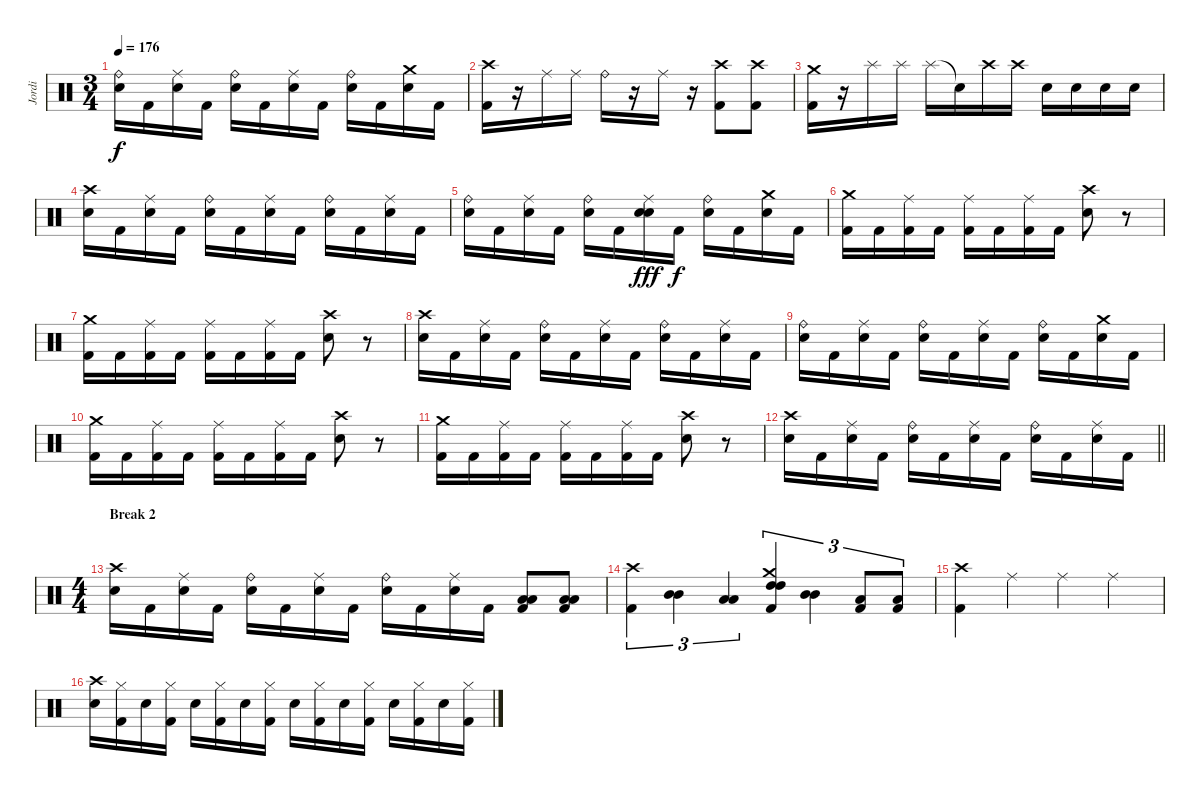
\track ("Jordi" "Jordi") {instrument percussion}
\staff {score}
\articulation defaults
\ts (3 4)
\tempo 176
\clef neutral
\ks c
("Ride (bell)" "Snare (hit) 2").16{dy f} "Kick (hit) 2".16 ("Ride (middle)" "Snare (hit) 2").16 "Kick (hit) 2".16 ("Ride (bell)" "Snare (hit) 2").16 "Kick (hit) 2".16 ("Ride (middle)" "Snare (hit) 2").16 "Kick (hit) 2".16 ("Ride (bell)" "Snare (hit) 2").16 "Kick (hit) 2".16 ("Crash medium (hit)" "Snare (hit) 2").16 "Kick (hit) 2".16 |
("Crash high (hit)" "Kick (hit) 2").16 r.16 "Ride (middle)".16 "Ride (middle)".16 "Ride (bell)".16 r.16 "Ride (middle)".16 r.16 ("Crash high (hit)" "Kick (hit) 2").8 ("Crash high (hit)" "Kick (hit) 2").8 |
("Crash medium (hit)" "Kick (hit) 2").16 r.16 "Splash (hit)".16 "Splash (hit)".16 "Splash (hit)".16 "Snare (hit)"{t}.16 "Crash high (hit)".16 "Crash high (hit)".16 "Snare (hit) 2".16 "Snare (hit) 2".16 "Snare (hit) 2".16 "Snare (hit) 2".16 |
("Crash high (hit)" "Snare (hit) 2").16 "Kick (hit) 2".16 ("Ride (middle)" "Snare (hit) 2").16 "Kick (hit) 2".16 ("Ride (bell)" "Snare (hit) 2").16 "Kick (hit) 2".16 ("Ride (middle)" "Snare (hit) 2").16 "Kick (hit) 2".16 ("Ride (bell)" "Snare (hit) 2").16 "Kick (hit) 2".16 ("Ride (middle)" "Snare (hit) 2").16 "Kick (hit) 2".16 |
("Ride (bell)" "Snare (hit) 2").16 "Kick (hit) 2".16 ("Ride (middle)" "Snare (hit) 2").16 "Kick (hit) 2".16 ("Ride (bell)" "Snare (hit) 2").16 "Kick (hit) 2".16 ("Ride (middle)" "Snare (hit) 2" "Snare (hit)").16{dy fff} "Kick (hit) 2".16{dy f} ("Ride (bell)" "Snare (hit) 2").16 "Kick (hit) 2".16 ("Crash medium (hit)" "Snare (hit) 2").16 "Kick (hit) 2".16 |
("Crash medium (hit)" "Kick (hit) 2").16 "Kick (hit) 2".16 ("Ride (middle)" "Kick (hit) 2").16 "Kick (hit) 2".16 ("Ride (middle)" "Kick (hit) 2").16 "Kick (hit) 2".16 ("Ride (middle)" "Kick (hit) 2").16 "Kick (hit) 2".16 ("Crash high (hit)" "Snare (hit) 2").8 r.8 |
("Crash medium (hit)" "Kick (hit) 2").16 "Kick (hit) 2".16 ("Ride (middle)" "Kick (hit) 2").16 "Kick (hit) 2".16 ("Ride (middle)" "Kick (hit) 2").16 "Kick (hit) 2".16 ("Ride (middle)" "Kick (hit) 2").16 "Kick (hit) 2".16 ("Crash high (hit)" "Snare (hit) 2").8 r.8 |
("Crash high (hit)" "Snare (hit) 2").16 "Kick (hit) 2".16 ("Ride (middle)" "Snare (hit) 2").16 "Kick (hit) 2".16 ("Ride (bell)" "Snare (hit) 2").16 "Kick (hit) 2".16 ("Ride (middle)" "Snare (hit) 2").16 "Kick (hit) 2".16 ("Ride (bell)" "Snare (hit) 2").16 "Kick (hit) 2".16 ("Ride (middle)" "Snare (hit) 2").16 "Kick (hit) 2".16 |
("Ride (bell)" "Snare (hit) 2").16 "Kick (hit) 2".16 ("Ride (middle)" "Snare (hit) 2").16 "Kick (hit) 2".16 ("Ride (bell)" "Snare (hit) 2").16 "Kick (hit) 2".16 ("Ride (middle)" "Snare (hit) 2").16 "Kick (hit) 2".16 ("Ride (bell)" "Snare (hit) 2").16 "Kick (hit) 2".16 ("Crash medium (hit)" "Snare (hit) 2").16 "Kick (hit) 2".16 |
("Crash medium (hit)" "Kick (hit) 2").16 "Kick (hit) 2".16 ("Ride (middle)" "Kick (hit) 2").16 "Kick (hit) 2".16 ("Ride (middle)" "Kick (hit) 2").16 "Kick (hit) 2".16 ("Ride (middle)" "Kick (hit) 2").16 "Kick (hit) 2".16 ("Crash high (hit)" "Snare (hit) 2").8 r.8 |
("Crash medium (hit)" "Kick (hit) 2").16 "Kick (hit) 2".16 ("Ride (middle)" "Kick (hit) 2").16 "Kick (hit) 2".16 ("Ride (middle)" "Kick (hit) 2").16 "Kick (hit) 2".16 ("Ride (middle)" "Kick (hit) 2").16 "Kick (hit) 2".16 ("Crash high (hit)" "Snare (hit) 2").8 r.8 |
\barLineRight lightlight
("Crash high (hit)" "Snare (hit) 2").16 "Kick (hit) 2".16 ("Ride (middle)" "Snare (hit) 2").16 "Kick (hit) 2".16 ("Ride (bell)" "Snare (hit) 2").16 "Kick (hit) 2".16 ("Ride (middle)" "Snare (hit) 2").16 "Kick (hit) 2".16 ("Ride (bell)" "Snare (hit) 2").16 "Kick (hit) 2".16 ("Ride (middle)" "Snare (hit) 2").16 "Kick (hit) 2".16 |
\ts (4 4)
\section ("" "Break 2")
("Crash high (hit)" "Snare (hit) 2").16 "Kick (hit) 2".16 ("Ride (middle)" "Snare (hit) 2").16 "Kick (hit) 2".16 ("Ride (bell)" "Snare (hit) 2").16 "Kick (hit) 2".16 ("Ride (middle)" "Snare (hit) 2").16 "Kick (hit) 2".16 ("Ride (bell)" "Snare (hit) 2").16 "Kick (hit) 2".16 ("Ride (middle)" "Snare (hit) 2").16 "Kick (hit) 2".16 ("Low Floor Tom (hit)" "Low Floor Tom (hit)" "Kick (hit) 2").8 ("Low Floor Tom (hit)" "Low Floor Tom (hit)" "Kick (hit) 2").8 |
("Crash high (hit)" "Kick (hit) 2").4{tu (3 2)} ("Mid Tom (hit)" "Mid Tom (hit)").4{tu (3 2)} ("Low Floor Tom (hit)" "Low Floor Tom (hit)").4{tu (3 2)} ("Crash medium (hit)" "High Tom (hit)" "High Tom (hit)" "Kick (hit) 2").4{tu (3 2)} ("Mid Tom (hit)" "Mid Tom (hit)").4{tu (3 2)} ("Low Floor Tom (hit)" "Kick (hit) 2").8{tu (3 2)} ("Low Floor Tom (hit)" "Kick (hit) 2").8{tu (3 2)} |
("Crash high (hit)" "Kick (hit) 2").4 "Ride (middle)".4 "Ride (middle)".4 "Ride (middle)".4 |
("Crash high (hit)" "Snare (hit) 2").16 ("Hi-Hat (closed)" "Kick (hit) 2").16 "Snare (hit) 2".16 ("Hi-Hat (closed)" "Kick (hit) 2").16 "Snare (hit) 2".16 ("Hi-Hat (closed)" "Kick (hit) 2").16 "Snare (hit) 2".16 ("Hi-Hat (closed)" "Kick (hit) 2").16 "Snare (hit) 2".16 ("Hi-Hat (closed)" "Kick (hit) 2").16 "Snare (hit) 2".16 ("Hi-Hat (closed)" "Kick (hit) 2").16 "Snare (hit) 2".16 ("Hi-Hat (closed)" "Kick (hit) 2").16 "Snare (hit) 2".16 ("Hi-Hat (closed)" "Kick (hit) 2").16
